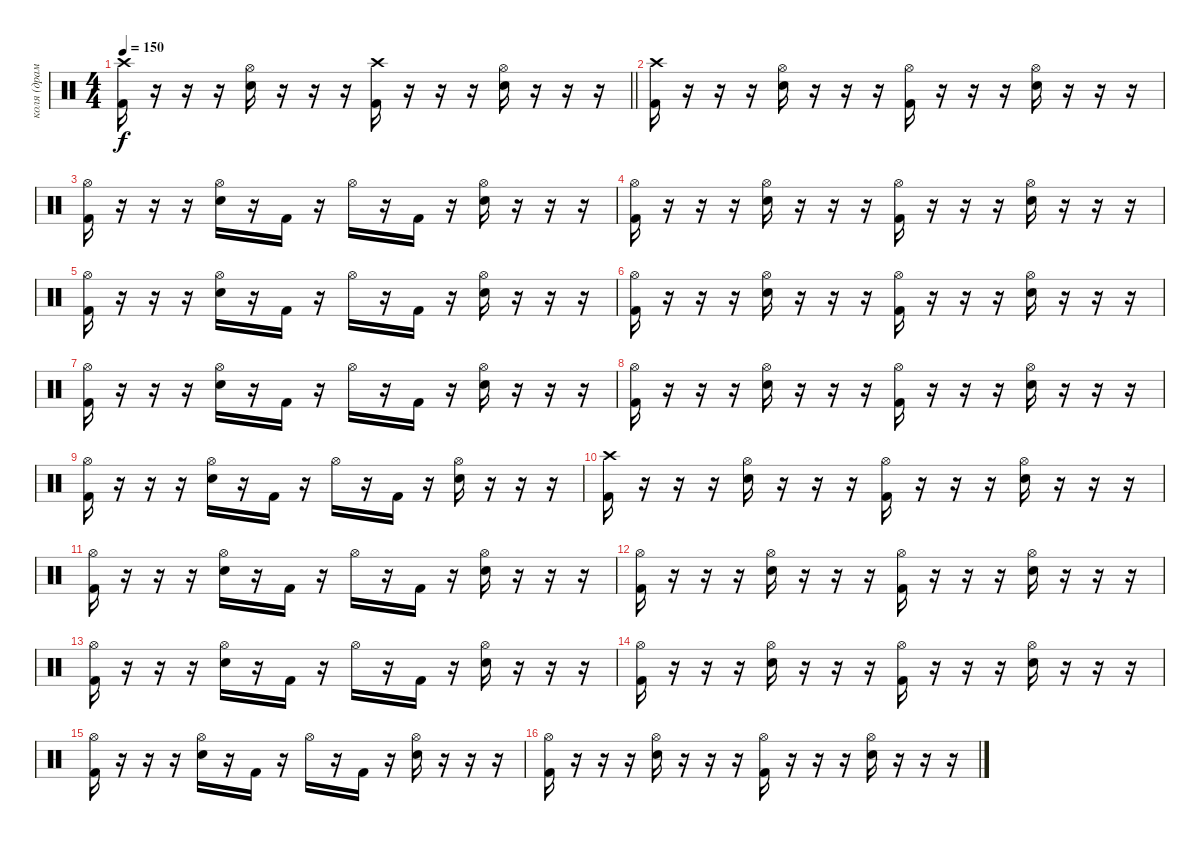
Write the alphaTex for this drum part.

\track ("коля (драммы)" "коля (драм") {instrument percussion}
\staff {score}
\articulation defaults
\ts (4 4)
\tempo 150
\clef neutral
\barLineRight lightlight
\ks c
("Kick (hit) 2" "Crash high (hit)").16{dy f} r.16 r.16 r.16 ("Snare (hit) 2" "Hi-Hat (open)").16 r.16 r.16 r.16 ("Kick (hit) 2" "Crash high (hit)").16 r.16 r.16 r.16 ("Snare (hit) 2" "Hi-Hat (open)").16 r.16 r.16 r.16 |
("Kick (hit) 2" "Crash high (hit)").16 r.16 r.16 r.16 ("Snare (hit) 2" "Hi-Hat (open)").16 r.16 r.16 r.16 ("Kick (hit) 2" "Hi-Hat (open)").16 r.16 r.16 r.16 ("Snare (hit) 2" "Hi-Hat (open)").16 r.16 r.16 r.16 |
("Kick (hit) 2" "Hi-Hat (open)").16 r.16 r.16 r.16 ("Snare (hit) 2" "Hi-Hat (open)").16 r.16 "Kick (hit) 2".16 r.16 "Hi-Hat (open)".16 r.16 "Kick (hit) 2".16 r.16 ("Snare (hit) 2" "Hi-Hat (open)").16 r.16 r.16 r.16 |
("Kick (hit) 2" "Hi-Hat (open)").16 r.16 r.16 r.16 ("Snare (hit) 2" "Hi-Hat (open)").16 r.16 r.16 r.16 ("Kick (hit) 2" "Hi-Hat (open)").16 r.16 r.16 r.16 ("Snare (hit) 2" "Hi-Hat (open)").16 r.16 r.16 r.16 |
("Kick (hit) 2" "Hi-Hat (open)").16 r.16 r.16 r.16 ("Snare (hit) 2" "Hi-Hat (open)").16 r.16 "Kick (hit) 2".16 r.16 "Hi-Hat (open)".16 r.16 "Kick (hit) 2".16 r.16 ("Snare (hit) 2" "Hi-Hat (open)").16 r.16 r.16 r.16 |
("Kick (hit) 2" "Hi-Hat (open)").16 r.16 r.16 r.16 ("Snare (hit) 2" "Hi-Hat (open)").16 r.16 r.16 r.16 ("Kick (hit) 2" "Hi-Hat (open)").16 r.16 r.16 r.16 ("Snare (hit) 2" "Hi-Hat (open)").16 r.16 r.16 r.16 |
("Kick (hit) 2" "Hi-Hat (open)").16 r.16 r.16 r.16 ("Snare (hit) 2" "Hi-Hat (open)").16 r.16 "Kick (hit) 2".16 r.16 "Hi-Hat (open)".16 r.16 "Kick (hit) 2".16 r.16 ("Snare (hit) 2" "Hi-Hat (open)").16 r.16 r.16 r.16 |
("Kick (hit) 2" "Hi-Hat (open)").16 r.16 r.16 r.16 ("Snare (hit) 2" "Hi-Hat (open)").16 r.16 r.16 r.16 ("Kick (hit) 2" "Hi-Hat (open)").16 r.16 r.16 r.16 ("Snare (hit) 2" "Hi-Hat (open)").16 r.16 r.16 r.16 |
("Kick (hit) 2" "Hi-Hat (open)").16 r.16 r.16 r.16 ("Snare (hit) 2" "Hi-Hat (open)").16 r.16 "Kick (hit) 2".16 r.16 "Hi-Hat (open)".16 r.16 "Kick (hit) 2".16 r.16 ("Snare (hit) 2" "Hi-Hat (open)").16 r.16 r.16 r.16 |
("Kick (hit) 2" "Crash high (hit)").16 r.16 r.16 r.16 ("Snare (hit) 2" "Hi-Hat (open)").16 r.16 r.16 r.16 ("Kick (hit) 2" "Hi-Hat (open)").16 r.16 r.16 r.16 ("Snare (hit) 2" "Hi-Hat (open)").16 r.16 r.16 r.16 |
("Kick (hit) 2" "Hi-Hat (open)").16 r.16 r.16 r.16 ("Snare (hit) 2" "Hi-Hat (open)").16 r.16 "Kick (hit) 2".16 r.16 "Hi-Hat (open)".16 r.16 "Kick (hit) 2".16 r.16 ("Snare (hit) 2" "Hi-Hat (open)").16 r.16 r.16 r.16 |
("Kick (hit) 2" "Hi-Hat (open)").16 r.16 r.16 r.16 ("Snare (hit) 2" "Hi-Hat (open)").16 r.16 r.16 r.16 ("Kick (hit) 2" "Hi-Hat (open)").16 r.16 r.16 r.16 ("Snare (hit) 2" "Hi-Hat (open)").16 r.16 r.16 r.16 |
("Kick (hit) 2" "Hi-Hat (open)").16 r.16 r.16 r.16 ("Snare (hit) 2" "Hi-Hat (open)").16 r.16 "Kick (hit) 2".16 r.16 "Hi-Hat (open)".16 r.16 "Kick (hit) 2".16 r.16 ("Snare (hit) 2" "Hi-Hat (open)").16 r.16 r.16 r.16 |
("Kick (hit) 2" "Hi-Hat (open)").16 r.16 r.16 r.16 ("Snare (hit) 2" "Hi-Hat (open)").16 r.16 r.16 r.16 ("Kick (hit) 2" "Hi-Hat (open)").16 r.16 r.16 r.16 ("Snare (hit) 2" "Hi-Hat (open)").16 r.16 r.16 r.16 |
("Kick (hit) 2" "Hi-Hat (open)").16 r.16 r.16 r.16 ("Snare (hit) 2" "Hi-Hat (open)").16 r.16 "Kick (hit) 2".16 r.16 "Hi-Hat (open)".16 r.16 "Kick (hit) 2".16 r.16 ("Snare (hit) 2" "Hi-Hat (open)").16 r.16 r.16 r.16 |
("Kick (hit) 2" "Hi-Hat (open)").16 r.16 r.16 r.16 ("Snare (hit) 2" "Hi-Hat (open)").16 r.16 r.16 r.16 ("Kick (hit) 2" "Hi-Hat (open)").16 r.16 r.16 r.16 ("Snare (hit) 2" "Hi-Hat (open)").16 r.16 r.16 r.16
